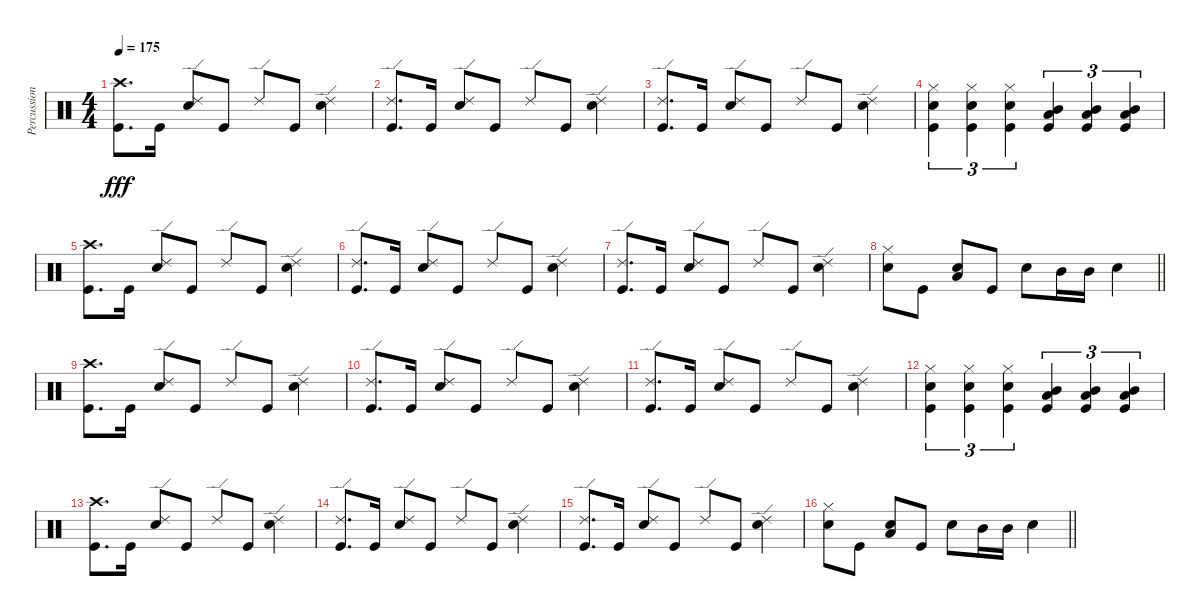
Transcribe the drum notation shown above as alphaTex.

\track ("Percussion" "Percussion") {instrument percussion}
\staff {score}
\articulation defaults
\ts (4 4)
\tempo 175
\clef neutral
\ks c
("Crash high (hit)" "Kick (hit)").8{d dy fff} "Kick (hit)".16 ("Ride (edge) 2" "Snare (hit) 2").8 "Kick (hit)".8 "Ride (edge) 2".8 "Kick (hit)".8 ("Ride (edge) 2" "Snare (hit) 2").4 |
("Ride (edge) 2" "Kick (hit)").8{d} "Kick (hit)".16 ("Ride (edge) 2" "Snare (hit) 2").8 "Kick (hit)".8 "Ride (edge) 2".8 "Kick (hit)".8 ("Ride (edge) 2" "Snare (hit) 2").4 |
("Ride (edge) 2" "Kick (hit)").8{d} "Kick (hit)".16 ("Ride (edge) 2" "Snare (hit) 2").8 "Kick (hit)".8 "Ride (edge) 2".8 "Kick (hit)".8 ("Ride (edge) 2" "Snare (hit) 2").4 |
("Hi-Hat (closed)" "Snare (hit) 2" "Kick (hit)").4{tu (3 2)} ("Hi-Hat (closed)" "Snare (hit) 2" "Kick (hit)").4{tu (3 2)} ("Hi-Hat (closed)" "Snare (hit) 2" "Kick (hit)").4{tu (3 2)} ("Mid Tom (hit)" "Low Tom (hit)" "Kick (hit)").4{tu (3 2)} ("Mid Tom (hit)" "Low Tom (hit)" "Kick (hit)").4{tu (3 2)} ("Mid Tom (hit)" "Low Tom (hit)" "Kick (hit)").4{tu (3 2)} |
("Crash high (hit)" "Kick (hit)").8{d} "Kick (hit)".16 ("Ride (edge) 2" "Snare (hit) 2").8 "Kick (hit)".8 "Ride (edge) 2".8 "Kick (hit)".8 ("Ride (edge) 2" "Snare (hit) 2").4 |
("Ride (edge) 2" "Kick (hit)").8{d} "Kick (hit)".16 ("Ride (edge) 2" "Snare (hit) 2").8 "Kick (hit)".8 "Ride (edge) 2".8 "Kick (hit)".8 ("Ride (edge) 2" "Snare (hit) 2").4 |
("Ride (edge) 2" "Kick (hit)").8{d} "Kick (hit)".16 ("Ride (edge) 2" "Snare (hit) 2").8 "Kick (hit)".8 "Ride (edge) 2".8 "Kick (hit)".8 ("Ride (edge) 2" "Snare (hit) 2").4 |
\barLineRight lightlight
("Snare (hit) 2" "Hi-Hat (closed)").8 "Kick (hit)".8 ("Snare (hit) 2" "Low Tom (hit)").8 "Kick (hit)".8 "Snare (hit) 2".8 "Mid Tom (hit)".16 "Mid Tom (hit)".16 "Snare (hit) 2".4 |
("Crash high (hit)" "Kick (hit)").8{d} "Kick (hit)".16 ("Ride (edge) 2" "Snare (hit) 2").8 "Kick (hit)".8 "Ride (edge) 2".8 "Kick (hit)".8 ("Ride (edge) 2" "Snare (hit) 2").4 |
("Ride (edge) 2" "Kick (hit)").8{d} "Kick (hit)".16 ("Ride (edge) 2" "Snare (hit) 2").8 "Kick (hit)".8 "Ride (edge) 2".8 "Kick (hit)".8 ("Ride (edge) 2" "Snare (hit) 2").4 |
("Ride (edge) 2" "Kick (hit)").8{d} "Kick (hit)".16 ("Ride (edge) 2" "Snare (hit) 2").8 "Kick (hit)".8 "Ride (edge) 2".8 "Kick (hit)".8 ("Ride (edge) 2" "Snare (hit) 2").4 |
("Hi-Hat (closed)" "Snare (hit) 2" "Kick (hit)").4{tu (3 2)} ("Hi-Hat (closed)" "Snare (hit) 2" "Kick (hit)").4{tu (3 2)} ("Hi-Hat (closed)" "Snare (hit) 2" "Kick (hit)").4{tu (3 2)} ("Mid Tom (hit)" "Low Tom (hit)" "Kick (hit)").4{tu (3 2)} ("Mid Tom (hit)" "Low Tom (hit)" "Kick (hit)").4{tu (3 2)} ("Mid Tom (hit)" "Low Tom (hit)" "Kick (hit)").4{tu (3 2)} |
("Crash high (hit)" "Kick (hit)").8{d} "Kick (hit)".16 ("Ride (edge) 2" "Snare (hit) 2").8 "Kick (hit)".8 "Ride (edge) 2".8 "Kick (hit)".8 ("Ride (edge) 2" "Snare (hit) 2").4 |
("Ride (edge) 2" "Kick (hit)").8{d} "Kick (hit)".16 ("Ride (edge) 2" "Snare (hit) 2").8 "Kick (hit)".8 "Ride (edge) 2".8 "Kick (hit)".8 ("Ride (edge) 2" "Snare (hit) 2").4 |
("Ride (edge) 2" "Kick (hit)").8{d} "Kick (hit)".16 ("Ride (edge) 2" "Snare (hit) 2").8 "Kick (hit)".8 "Ride (edge) 2".8 "Kick (hit)".8 ("Ride (edge) 2" "Snare (hit) 2").4 |
\barLineRight lightlight
("Snare (hit) 2" "Hi-Hat (closed)").8 "Kick (hit)".8 ("Snare (hit) 2" "Low Tom (hit)").8 "Kick (hit)".8 "Snare (hit) 2".8 "Mid Tom (hit)".16 "Mid Tom (hit)".16 "Snare (hit) 2".4
